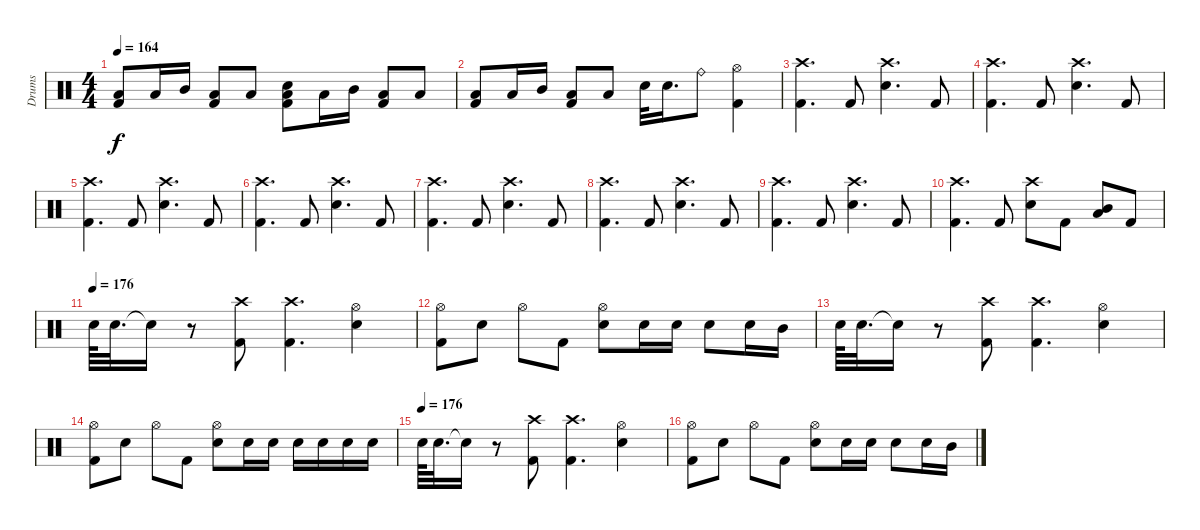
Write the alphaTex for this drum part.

\track ("Drums" "Drums") {instrument percussion}
\staff {score}
\articulation defaults
\ts (4 4)
\tempo 164
\clef neutral
\ks c
("Low Tom (hit)" "Kick (hit) 2").8{dy f} "Low Tom (hit)".16 "Mid Tom (hit)".16 ("Low Tom (hit)" "Kick (hit) 2").8 "Low Tom (hit)".8 ("Electric Snare (hit)" "Low Tom (hit)" "Kick (hit) 2").8 "Low Tom (hit)".16 "Mid Tom (hit)".16 ("Low Tom (hit)" "Kick (hit) 2").8 "Low Tom (hit)".8 |
("Low Tom (hit)" "Kick (hit) 2").8 "Low Tom (hit)".16 "Mid Tom (hit)".16 ("Low Tom (hit)" "Kick (hit) 2").8 "Low Tom (hit)".8 "Electric Snare (hit)".32 "Electric Snare (hit)".16{d} "Ride (bell)".8 ("Hi-Hat (open)" "Kick (hit) 2").4 |
("Crash high (hit)" "Kick (hit) 2").4{d} "Kick (hit) 2".8 ("Crash high (hit)" "Electric Snare (hit)").4{d} "Kick (hit) 2".8 |
("Crash high (hit)" "Kick (hit) 2").4{d} "Kick (hit) 2".8 ("Crash high (hit)" "Electric Snare (hit)").4{d} "Kick (hit) 2".8 |
("Crash high (hit)" "Kick (hit) 2").4{d} "Kick (hit) 2".8 ("Crash high (hit)" "Electric Snare (hit)").4{d} "Kick (hit) 2".8 |
("Crash high (hit)" "Kick (hit) 2").4{d} "Kick (hit) 2".8 ("Crash high (hit)" "Electric Snare (hit)").4{d} "Kick (hit) 2".8 |
("Crash high (hit)" "Kick (hit) 2").4{d} "Kick (hit) 2".8 ("Crash high (hit)" "Electric Snare (hit)").4{d} "Kick (hit) 2".8 |
("Crash high (hit)" "Kick (hit) 2").4{d} "Kick (hit) 2".8 ("Crash high (hit)" "Electric Snare (hit)").4{d} "Kick (hit) 2".8 |
("Crash high (hit)" "Kick (hit) 2").4{d} "Kick (hit) 2".8 ("Crash high (hit)" "Electric Snare (hit)").4{d} "Kick (hit) 2".8 |
("Crash high (hit)" "Kick (hit) 2").4{d} "Kick (hit) 2".8 ("Crash high (hit)" "Electric Snare (hit)").8 "Kick (hit) 2".8 ("Low Tom (hit)" "Mid Tom (hit)").8 "Kick (hit) 2".8 |
\section ("" "")
\tempo (176)
"Electric Snare (hit)".64 "Electric Snare (hit)".32{d} "Snare (hit)"{t}.16 r.8 ("Crash high (hit)" "Kick (hit) 2").8 ("Crash high (hit)" "Kick (hit) 2").4{d} ("Hi-Hat (open)" "Electric Snare (hit)").4 |
("Hi-Hat (open)" "Kick (hit) 2").8 "Electric Snare (hit)".8 "Hi-Hat (open)".8 "Kick (hit) 2".8 ("Hi-Hat (open)" "Electric Snare (hit)").8 "Electric Snare (hit)".16 "Electric Snare (hit)".16 "Electric Snare (hit)".8 "Electric Snare (hit)".16 "Mid Tom (hit)".16 |
"Electric Snare (hit)".64 "Electric Snare (hit)".32{d} "Snare (hit)"{t}.16 r.8 ("Crash high (hit)" "Kick (hit) 2").8 ("Crash high (hit)" "Kick (hit) 2").4{d} ("Hi-Hat (open)" "Electric Snare (hit)").4 |
("Hi-Hat (open)" "Kick (hit) 2").8 "Electric Snare (hit)".8 "Hi-Hat (open)".8 "Kick (hit) 2".8 ("Hi-Hat (open)" "Electric Snare (hit)").8 "Electric Snare (hit)".16 "Electric Snare (hit)".16 "Electric Snare (hit)".16 "Electric Snare (hit)".16 "Electric Snare (hit)".16 "Electric Snare (hit)".16 |
\tempo (176)
"Electric Snare (hit)".64 "Electric Snare (hit)".32{d} "Snare (hit)"{t}.16 r.8 ("Crash high (hit)" "Kick (hit) 2").8 ("Crash high (hit)" "Kick (hit) 2").4{d} ("Hi-Hat (open)" "Electric Snare (hit)").4 |
("Hi-Hat (open)" "Kick (hit) 2").8 "Electric Snare (hit)".8 "Hi-Hat (open)".8 "Kick (hit) 2".8 ("Hi-Hat (open)" "Electric Snare (hit)").8 "Electric Snare (hit)".16 "Electric Snare (hit)".16 "Electric Snare (hit)".8 "Electric Snare (hit)".16 "Mid Tom (hit)".16
